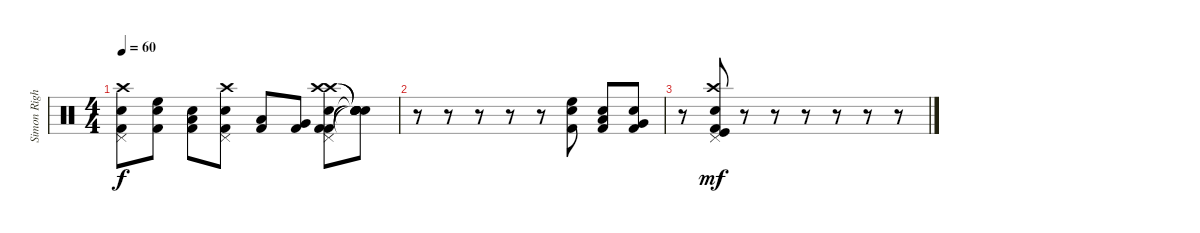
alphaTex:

\track ("Simon Right" "Simon Righ") {instrument percussion}
\staff {score}
\articulation defaults
\ts (4 4)
\tempo 60
\clef neutral
\ks c
("Pedal Hi-Hat (hit)" "Kick (hit) 2" "Snare (hit) 2" "Crash high (hit)").8{dy f} ("High Floor Tom (hit)" "Kick (hit) 2" "Snare (hit) 2").8 ("Low Tom (hit)" "Snare (hit) 2" "Kick (hit) 2").8 ("Pedal Hi-Hat (hit)" "Snare (hit) 2" "Kick (hit) 2" "Crash high (hit)").8 ("Low Tom (hit)" "Kick (hit) 2").8 ("Very Low Tom (hit)" "Kick (hit) 2").8 ("Crash high (hit)" "Pedal Hi-Hat (hit)" "Snare (hit) 2" "Kick (hit) 2" "Crash high (hit)" "Kick (hit) 2").8 ("Snare (hit)"{t} "Snare (hit)"{t} "Snare (hit)"{t} "Snare (hit)"{t} "Snare (hit)"{t} "Snare (hit)"{t}).8 |
r.8 r.8 r.8 r.8 r.8 ("High Floor Tom (hit)" "Snare (hit) 2" "Kick (hit) 2").8 ("Snare (hit) 2" "Kick (hit) 2" "Low Tom (hit)").8 ("Very Low Tom (hit)" "Snare (hit) 2" "Kick (hit) 2").8 |
r.8 ("Pedal Hi-Hat (hit)" "Crash high (hit)" "Snare (hit) 2" "Kick (hit) 2" "Kick (hit)").8{dy mf} r.8 r.8 r.8 r.8 r.8 r.8
